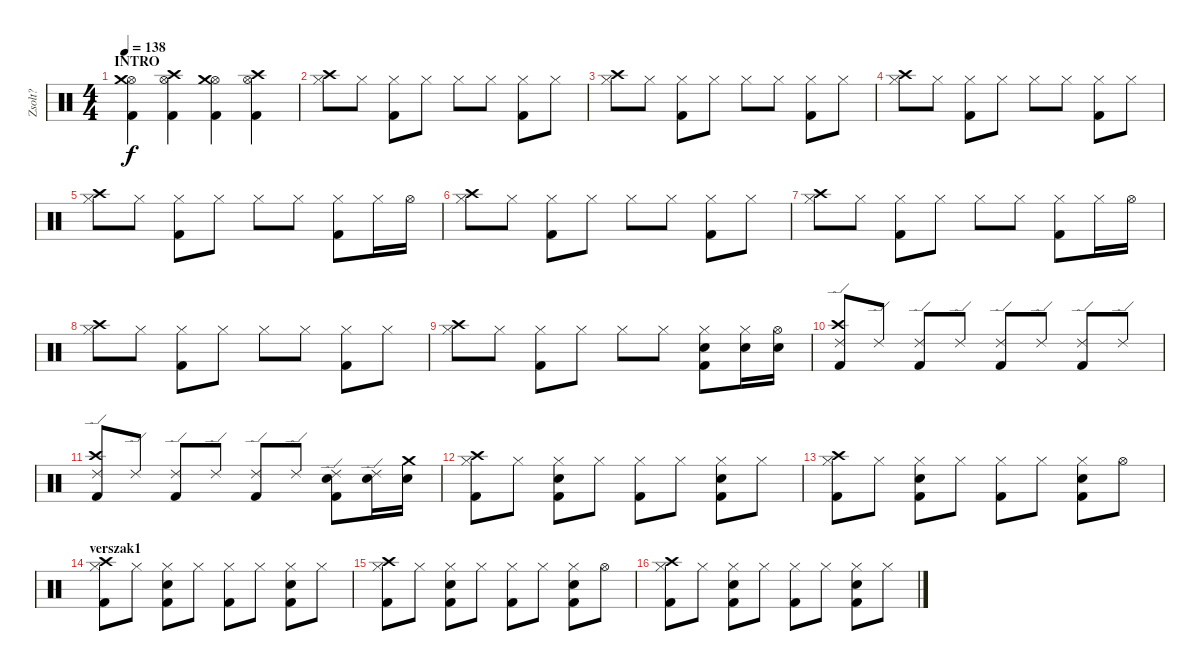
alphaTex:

\track ("Zsolt?" "Zsolt?") {instrument percussion}
\staff {score}
\articulation defaults
\ts (4 4)
\section ("" "INTRO")
\tempo 138
\clef neutral
\ks c
("Hi-Hat (open)" "Crash medium (hit)" "Kick (hit) 2").4{dy f} ("Hi-Hat (open)" "Crash high (hit)" "Kick (hit) 2").4 ("Hi-Hat (open)" "Crash medium (hit)" "Kick (hit) 2").4 ("Hi-Hat (open)" "Crash high (hit)" "Kick (hit) 2").4 |
("Hi-Hat (closed)" "Crash high (hit)").8 "Hi-Hat (closed)".8 ("Hi-Hat (closed)" "Kick (hit) 2").8 "Hi-Hat (closed)".8 "Hi-Hat (closed)".8 "Hi-Hat (closed)".8 ("Hi-Hat (closed)" "Kick (hit) 2").8 "Hi-Hat (closed)".8 |
("Hi-Hat (closed)" "Crash high (hit)").8 "Hi-Hat (closed)".8 ("Hi-Hat (closed)" "Kick (hit) 2").8 "Hi-Hat (closed)".8 "Hi-Hat (closed)".8 "Hi-Hat (closed)".8 ("Hi-Hat (closed)" "Kick (hit) 2").8 "Hi-Hat (closed)".8 |
("Hi-Hat (closed)" "Crash high (hit)").8 "Hi-Hat (closed)".8 ("Hi-Hat (closed)" "Kick (hit) 2").8 "Hi-Hat (closed)".8 "Hi-Hat (closed)".8 "Hi-Hat (closed)".8 ("Hi-Hat (closed)" "Kick (hit) 2").8 "Hi-Hat (closed)".8 |
("Hi-Hat (closed)" "Crash high (hit)").8 "Hi-Hat (closed)".8 ("Hi-Hat (closed)" "Kick (hit) 2").8 "Hi-Hat (closed)".8 "Hi-Hat (closed)".8 "Hi-Hat (closed)".8 ("Hi-Hat (closed)" "Kick (hit) 2").8 "Hi-Hat (closed)".16 "Hi-Hat (open)".16 |
("Hi-Hat (closed)" "Crash high (hit)").8 "Hi-Hat (closed)".8 ("Hi-Hat (closed)" "Kick (hit) 2").8 "Hi-Hat (closed)".8 "Hi-Hat (closed)".8 "Hi-Hat (closed)".8 ("Hi-Hat (closed)" "Kick (hit) 2").8 "Hi-Hat (closed)".8 |
("Hi-Hat (closed)" "Crash high (hit)").8 "Hi-Hat (closed)".8 ("Hi-Hat (closed)" "Kick (hit) 2").8 "Hi-Hat (closed)".8 "Hi-Hat (closed)".8 "Hi-Hat (closed)".8 ("Hi-Hat (closed)" "Kick (hit) 2").8 "Hi-Hat (closed)".16 "Hi-Hat (open)".16 |
("Hi-Hat (closed)" "Crash high (hit)").8 "Hi-Hat (closed)".8 ("Hi-Hat (closed)" "Kick (hit) 2").8 "Hi-Hat (closed)".8 "Hi-Hat (closed)".8 "Hi-Hat (closed)".8 ("Hi-Hat (closed)" "Kick (hit) 2").8 "Hi-Hat (closed)".8 |
("Hi-Hat (closed)" "Crash high (hit)").8 "Hi-Hat (closed)".8 ("Hi-Hat (closed)" "Kick (hit) 2").8 "Hi-Hat (closed)".8 "Hi-Hat (closed)".8 "Hi-Hat (closed)".8 ("Hi-Hat (closed)" "Snare (hit) 2" "Kick (hit) 2").8 ("Hi-Hat (closed)" "Snare (hit) 2").16 ("Hi-Hat (open)" "Snare (hit) 2").16 |
("Ride (edge) 2" "Crash high (hit)" "Kick (hit) 2").8 "Ride (edge) 2".8 ("Ride (edge) 2" "Kick (hit) 2").8 "Ride (edge) 2".8 ("Ride (edge) 2" "Kick (hit) 2").8 "Ride (edge) 2".8 ("Ride (edge) 2" "Kick (hit) 2").8 "Ride (edge) 2".8 |
("Ride (edge) 2" "Crash high (hit)" "Kick (hit) 2").8 "Ride (edge) 2".8 ("Ride (edge) 2" "Kick (hit) 2").8 "Ride (edge) 2".8 ("Ride (edge) 2" "Kick (hit) 2").8 "Ride (edge) 2".8 ("Ride (edge) 2" "Snare (hit) 2" "Kick (hit) 2").8 ("Ride (edge) 2" "Snare (hit) 2").16 ("Crash medium (hit)" "Snare (hit) 2").16 |
("Hi-Hat (closed)" "Crash high (hit)" "Kick (hit) 2").8 "Hi-Hat (closed)".8 ("Hi-Hat (closed)" "Snare (hit) 2" "Kick (hit) 2").8 "Hi-Hat (closed)".8 ("Hi-Hat (closed)" "Kick (hit) 2").8 "Hi-Hat (closed)".8 ("Hi-Hat (closed)" "Snare (hit) 2" "Kick (hit) 2").8 "Hi-Hat (closed)".8 |
("Hi-Hat (closed)" "Crash high (hit)" "Kick (hit) 2").8 "Hi-Hat (closed)".8 ("Hi-Hat (closed)" "Snare (hit) 2" "Kick (hit) 2").8 "Hi-Hat (closed)".8 ("Hi-Hat (closed)" "Kick (hit) 2").8 "Hi-Hat (closed)".8 ("Hi-Hat (closed)" "Snare (hit) 2" "Kick (hit) 2").8 "Hi-Hat (open)".8 |
\section ("" "verszak1")
("Hi-Hat (closed)" "Crash high (hit)" "Kick (hit) 2").8 "Hi-Hat (closed)".8 ("Hi-Hat (closed)" "Snare (hit) 2" "Kick (hit) 2").8 "Hi-Hat (closed)".8 ("Hi-Hat (closed)" "Kick (hit) 2").8 "Hi-Hat (closed)".8 ("Hi-Hat (closed)" "Snare (hit) 2" "Kick (hit) 2").8 "Hi-Hat (closed)".8 |
("Hi-Hat (closed)" "Crash high (hit)" "Kick (hit) 2").8 "Hi-Hat (closed)".8 ("Hi-Hat (closed)" "Snare (hit) 2" "Kick (hit) 2").8 "Hi-Hat (closed)".8 ("Hi-Hat (closed)" "Kick (hit) 2").8 "Hi-Hat (closed)".8 ("Hi-Hat (closed)" "Snare (hit) 2" "Kick (hit) 2").8 "Hi-Hat (open)".8 |
("Hi-Hat (closed)" "Crash high (hit)" "Kick (hit) 2").8 "Hi-Hat (closed)".8 ("Hi-Hat (closed)" "Snare (hit) 2" "Kick (hit) 2").8 "Hi-Hat (closed)".8 ("Hi-Hat (closed)" "Kick (hit) 2").8 "Hi-Hat (closed)".8 ("Hi-Hat (closed)" "Snare (hit) 2" "Kick (hit) 2").8 "Hi-Hat (closed)".8
